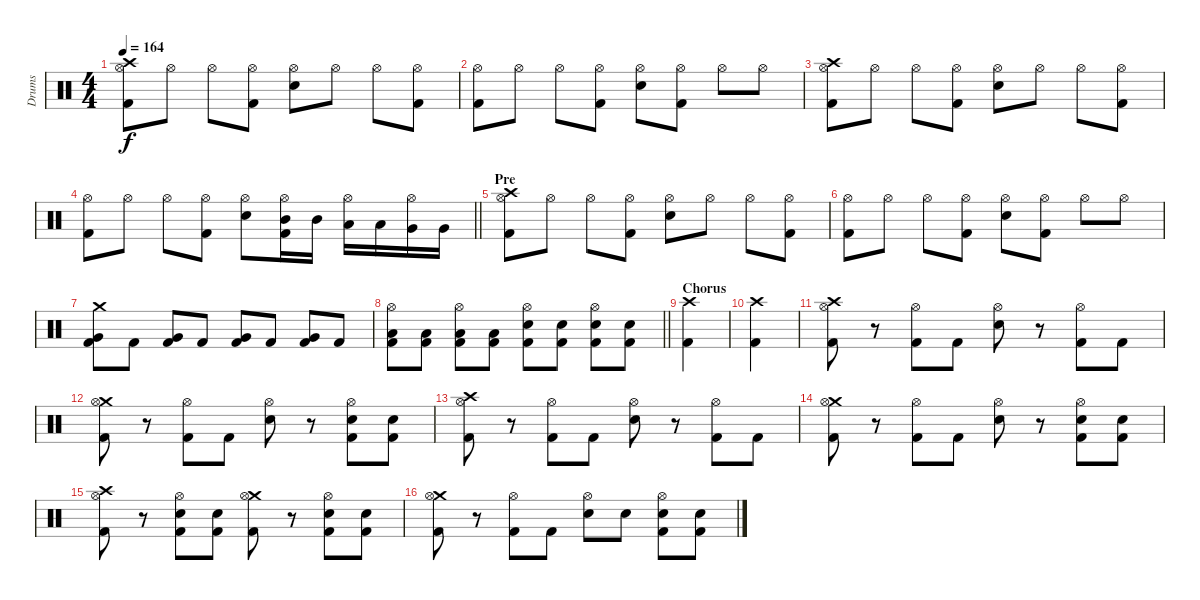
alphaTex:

\track ("Drums" "Drums") {instrument percussion}
\staff {score}
\articulation defaults
\ts (4 4)
\tempo 164
\clef neutral
\ks c
("Crash high (hit)" "Hi-Hat (open)" "Kick (hit) 2").8{dy f} "Hi-Hat (open)".8 "Hi-Hat (open)".8 ("Hi-Hat (open)" "Kick (hit) 2").8 ("Hi-Hat (open)" "Snare (hit) 2").8 "Hi-Hat (open)".8 "Hi-Hat (open)".8 ("Hi-Hat (open)" "Kick (hit) 2").8 |
("Hi-Hat (open)" "Kick (hit) 2").8 "Hi-Hat (open)".8 "Hi-Hat (open)".8 ("Hi-Hat (open)" "Kick (hit) 2").8 ("Hi-Hat (open)" "Snare (hit) 2").8 ("Hi-Hat (open)" "Kick (hit) 2").8 "Hi-Hat (open)".8 "Hi-Hat (open)".8 |
("Crash high (hit)" "Hi-Hat (open)" "Kick (hit) 2").8 "Hi-Hat (open)".8 "Hi-Hat (open)".8 ("Hi-Hat (open)" "Kick (hit) 2").8 ("Hi-Hat (open)" "Snare (hit) 2").8 "Hi-Hat (open)".8 "Hi-Hat (open)".8 ("Hi-Hat (open)" "Kick (hit) 2").8 |
\barLineRight lightlight
("Hi-Hat (open)" "Kick (hit) 2").8 "Hi-Hat (open)".8 "Hi-Hat (open)".8 ("Hi-Hat (open)" "Kick (hit) 2").8 ("Hi-Hat (open)" "Snare (hit) 2").8 ("Hi-Hat (open)" "Mid Tom (hit)" "Kick (hit) 2").16 "Mid Tom (hit)".16 ("Hi-Hat (open)" "Low Tom (hit)").16 "Low Tom (hit)".16 ("Hi-Hat (open)" "Very Low Tom (hit)").16 "Very Low Tom (hit)".16 |
\section ("" "Pre")
("Crash high (hit)" "Hi-Hat (open)" "Kick (hit) 2").8 "Hi-Hat (open)".8 "Hi-Hat (open)".8 ("Hi-Hat (open)" "Kick (hit) 2").8 ("Hi-Hat (open)" "Snare (hit) 2").8 "Hi-Hat (open)".8 "Hi-Hat (open)".8 ("Hi-Hat (open)" "Kick (hit) 2").8 |
("Hi-Hat (open)" "Kick (hit) 2").8 "Hi-Hat (open)".8 "Hi-Hat (open)".8 ("Hi-Hat (open)" "Kick (hit) 2").8 ("Hi-Hat (open)" "Snare (hit) 2").8 ("Hi-Hat (open)" "Kick (hit) 2").8 "Hi-Hat (open)".8 "Hi-Hat (open)".8 |
("Crash medium (hit)" "Very Low Tom (hit)" "Kick (hit) 2").8 "Kick (hit) 2".8 ("Very Low Tom (hit)" "Kick (hit) 2").8 "Kick (hit) 2".8 ("Very Low Tom (hit)" "Kick (hit) 2").8 "Kick (hit) 2".8 ("Very Low Tom (hit)" "Kick (hit) 2").8 "Kick (hit) 2".8 |
\barLineRight lightlight
("Hi-Hat (open)" "Low Tom (hit)" "Kick (hit) 2").8 ("Low Tom (hit)" "Kick (hit) 2").8 ("Hi-Hat (open)" "Low Tom (hit)" "Kick (hit) 2").8 ("Low Tom (hit)" "Kick (hit) 2").8 ("Hi-Hat (open)" "Snare (hit) 2" "Kick (hit) 2").8 ("Snare (hit) 2" "Kick (hit) 2").8 ("Hi-Hat (open)" "Snare (hit) 2" "Kick (hit) 2").8 ("Snare (hit) 2" "Kick (hit) 2").8 |
\section ("" "Chorus")
("Crash high (hit)" "Kick (hit) 2").4 |
("Crash high (hit)" "Kick (hit) 2").4 |
("Crash high (hit)" "Hi-Hat (open)" "Kick (hit) 2").8 r.8 ("Hi-Hat (open)" "Kick (hit) 2").8 "Kick (hit) 2".8 ("Hi-Hat (open)" "Snare (hit) 2").8 r.8 ("Hi-Hat (open)" "Kick (hit) 2").8 "Kick (hit) 2".8 |
("Crash medium (hit)" "Hi-Hat (open)" "Kick (hit) 2").8 r.8 ("Hi-Hat (open)" "Kick (hit) 2").8 "Kick (hit) 2".8 ("Hi-Hat (open)" "Snare (hit) 2").8 r.8 ("Hi-Hat (open)" "Snare (hit) 2" "Kick (hit) 2").8 ("Snare (hit) 2" "Kick (hit) 2").8 |
("Crash high (hit)" "Hi-Hat (open)" "Kick (hit) 2").8 r.8 ("Hi-Hat (open)" "Kick (hit) 2").8 "Kick (hit) 2".8 ("Hi-Hat (open)" "Snare (hit) 2").8 r.8 ("Hi-Hat (open)" "Kick (hit) 2").8 "Kick (hit) 2".8 |
("Crash medium (hit)" "Hi-Hat (open)" "Kick (hit) 2").8 r.8 ("Hi-Hat (open)" "Kick (hit) 2").8 "Kick (hit) 2".8 ("Hi-Hat (open)" "Snare (hit) 2").8 r.8 ("Hi-Hat (open)" "Snare (hit) 2" "Kick (hit) 2").8 ("Snare (hit) 2" "Kick (hit) 2").8 |
("Crash high (hit)" "Hi-Hat (open)" "Kick (hit) 2").8 r.8 ("Hi-Hat (open)" "Snare (hit) 2" "Kick (hit) 2").8 ("Snare (hit) 2" "Kick (hit) 2").8 ("Crash medium (hit)" "Hi-Hat (open)" "Kick (hit) 2").8 r.8 ("Hi-Hat (open)" "Snare (hit) 2" "Kick (hit) 2").8 ("Snare (hit) 2" "Kick (hit) 2").8 |
("Crash medium (hit)" "Hi-Hat (open)" "Kick (hit) 2").8 r.8 ("Hi-Hat (open)" "Kick (hit) 2").8 "Kick (hit) 2".8 ("Hi-Hat (open)" "Snare (hit) 2").8 "Snare (hit) 2".8 ("Hi-Hat (open)" "Snare (hit) 2" "Kick (hit) 2").8 ("Snare (hit) 2" "Kick (hit) 2").8
